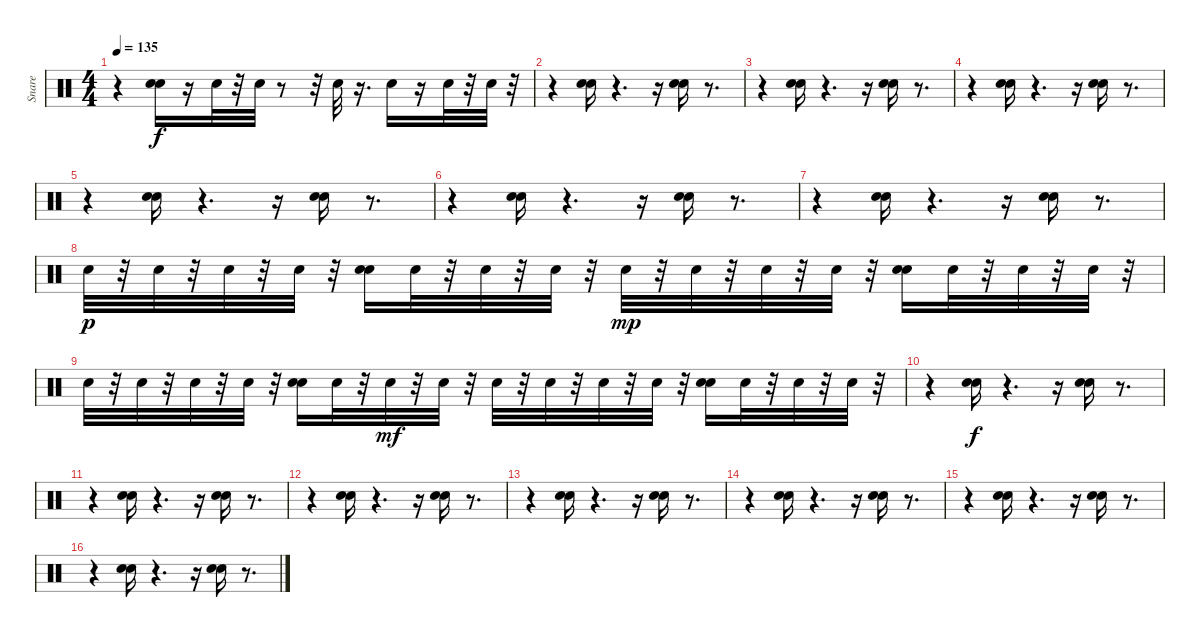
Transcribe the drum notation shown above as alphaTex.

\track ("Snare" "Snare") {instrument percussion}
\staff {score}
\articulation defaults
\ts (4 4)
\tempo 135
\clef neutral
\ks c
r.4{dy f} ("Snare (hit) 2" "Hand Clap (hit)").16 r.16 "Snare (hit) 2".32 r.32 "Snare (hit) 2".32 r.8 r.32 "Snare (hit) 2".32 r.16{d} "Snare (hit) 2".16 r.16 "Snare (hit) 2".32 r.32 "Snare (hit) 2".32 r.32 |
r.4 ("Hand Clap (hit)" "Snare (hit) 2").16 r.4{d} r.16 ("Hand Clap (hit)" "Snare (hit) 2").16 r.8{d} |
r.4 ("Snare (hit) 2" "Hand Clap (hit)").16 r.4{d} r.16 ("Snare (hit) 2" "Hand Clap (hit)").16 r.8{d} |
r.4 ("Hand Clap (hit)" "Snare (hit) 2").16 r.4{d} r.16 ("Hand Clap (hit)" "Snare (hit) 2").16 r.8{d} |
r.4 ("Hand Clap (hit)" "Snare (hit) 2").16 r.4{d} r.16 ("Hand Clap (hit)" "Snare (hit) 2").16 r.8{d} |
r.4 ("Hand Clap (hit)" "Snare (hit) 2").16 r.4{d} r.16 ("Hand Clap (hit)" "Snare (hit) 2").16 r.8{d} |
r.4 ("Snare (hit) 2" "Hand Clap (hit)").16 r.4{d} r.16 ("Snare (hit) 2" "Hand Clap (hit)").16 r.8{d} |
"Snare (hit) 2".32{dy p} r.32 "Snare (hit) 2".32 r.32 "Snare (hit) 2".32 r.32 "Snare (hit) 2".32 r.32 ("Snare (hit) 2" "Hand Clap (hit)").16 "Snare (hit) 2".32 r.32 "Snare (hit) 2".32 r.32 "Snare (hit) 2".32 r.32 "Snare (hit) 2".32{dy mp} r.32 "Snare (hit) 2".32 r.32 "Snare (hit) 2".32 r.32 "Snare (hit) 2".32 r.32 ("Hand Clap (hit)" "Snare (hit) 2").16 "Snare (hit) 2".32 r.32 "Snare (hit) 2".32 r.32 "Snare (hit) 2".32 r.32 |
"Snare (hit) 2".32 r.32 "Snare (hit) 2".32 r.32 "Snare (hit) 2".32 r.32 "Snare (hit) 2".32 r.32 ("Hand Clap (hit)" "Snare (hit) 2").16 "Snare (hit) 2".32 r.32 "Snare (hit) 2".32{dy mf} r.32 "Snare (hit) 2".32 r.32 "Snare (hit) 2".32 r.32 "Snare (hit) 2".32 r.32 "Snare (hit) 2".32 r.32 "Snare (hit) 2".32 r.32 ("Hand Clap (hit)" "Snare (hit) 2").16 "Snare (hit) 2".32 r.32 "Snare (hit) 2".32 r.32 "Snare (hit) 2".32 r.32 |
r.4 ("Hand Clap (hit)" "Snare (hit) 2").16{dy f} r.4{d} r.16 ("Hand Clap (hit)" "Snare (hit) 2").16 r.8{d} |
r.4 ("Snare (hit) 2" "Hand Clap (hit)").16 r.4{d} r.16 ("Snare (hit) 2" "Hand Clap (hit)").16 r.8{d} |
r.4 ("Hand Clap (hit)" "Snare (hit) 2").16 r.4{d} r.16 ("Hand Clap (hit)" "Snare (hit) 2").16 r.8{d} |
r.4 ("Hand Clap (hit)" "Snare (hit) 2").16 r.4{d} r.16 ("Hand Clap (hit)" "Snare (hit) 2").16 r.8{d} |
r.4 ("Hand Clap (hit)" "Snare (hit) 2").16 r.4{d} r.16 ("Hand Clap (hit)" "Snare (hit) 2").16 r.8{d} |
r.4 ("Snare (hit) 2" "Hand Clap (hit)").16 r.4{d} r.16 ("Snare (hit) 2" "Hand Clap (hit)").16 r.8{d} |
r.4 ("Hand Clap (hit)" "Snare (hit) 2").16 r.4{d} r.16 ("Hand Clap (hit)" "Snare (hit) 2").16 r.8{d}
